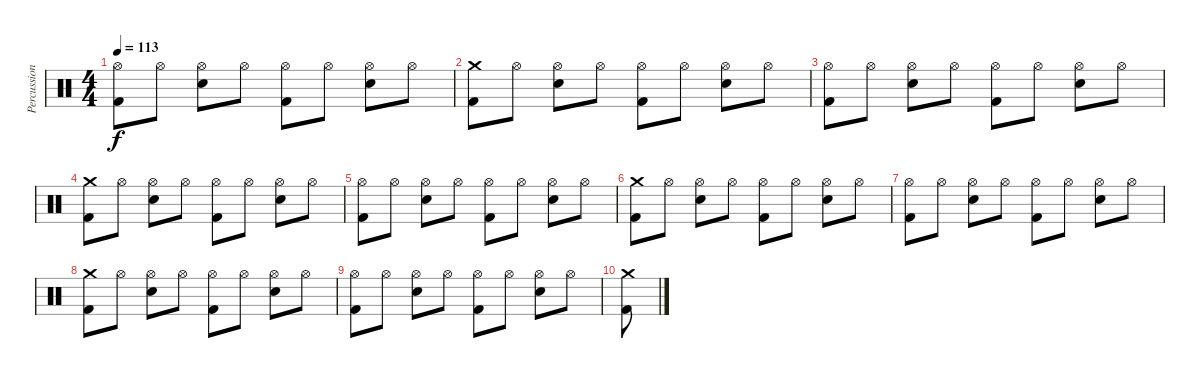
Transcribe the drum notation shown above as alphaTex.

\track ("Percussion" "Percussion") {instrument percussion}
\staff {score}
\articulation defaults
\ts (4 4)
\tempo 113
\clef neutral
\ks c
("Hi-Hat (open)" "Kick (hit) 2").8{dy f} "Hi-Hat (open)".8 ("Hi-Hat (open)" "Electric Snare (hit)").8 "Hi-Hat (open)".8 ("Hi-Hat (open)" "Kick (hit) 2").8 "Hi-Hat (open)".8 ("Hi-Hat (open)" "Electric Snare (hit)").8 "Hi-Hat (open)".8 |
("Crash medium (hit)" "Kick (hit) 2").8 "Hi-Hat (open)".8 ("Hi-Hat (open)" "Electric Snare (hit)").8 "Hi-Hat (open)".8 ("Hi-Hat (open)" "Kick (hit) 2").8 "Hi-Hat (open)".8 ("Hi-Hat (open)" "Electric Snare (hit)").8 "Hi-Hat (open)".8 |
("Hi-Hat (open)" "Kick (hit) 2").8 "Hi-Hat (open)".8 ("Hi-Hat (open)" "Electric Snare (hit)").8 "Hi-Hat (open)".8 ("Hi-Hat (open)" "Kick (hit) 2").8 "Hi-Hat (open)".8 ("Hi-Hat (open)" "Electric Snare (hit)").8 "Hi-Hat (open)".8 |
("Crash medium (hit)" "Kick (hit) 2").8 "Hi-Hat (open)".8 ("Hi-Hat (open)" "Electric Snare (hit)").8 "Hi-Hat (open)".8 ("Hi-Hat (open)" "Kick (hit) 2").8 "Hi-Hat (open)".8 ("Hi-Hat (open)" "Electric Snare (hit)").8 "Hi-Hat (open)".8 |
("Hi-Hat (open)" "Kick (hit) 2").8 "Hi-Hat (open)".8 ("Hi-Hat (open)" "Electric Snare (hit)").8 "Hi-Hat (open)".8 ("Hi-Hat (open)" "Kick (hit) 2").8 "Hi-Hat (open)".8 ("Hi-Hat (open)" "Electric Snare (hit)").8 "Hi-Hat (open)".8 |
("Crash medium (hit)" "Kick (hit) 2").8 "Hi-Hat (open)".8 ("Hi-Hat (open)" "Electric Snare (hit)").8 "Hi-Hat (open)".8 ("Hi-Hat (open)" "Kick (hit) 2").8 "Hi-Hat (open)".8 ("Hi-Hat (open)" "Electric Snare (hit)").8 "Hi-Hat (open)".8 |
("Hi-Hat (open)" "Kick (hit) 2").8 "Hi-Hat (open)".8 ("Hi-Hat (open)" "Electric Snare (hit)").8 "Hi-Hat (open)".8 ("Hi-Hat (open)" "Kick (hit) 2").8 "Hi-Hat (open)".8 ("Hi-Hat (open)" "Electric Snare (hit)").8 "Hi-Hat (open)".8 |
("Crash medium (hit)" "Kick (hit) 2").8 "Hi-Hat (open)".8 ("Hi-Hat (open)" "Electric Snare (hit)").8 "Hi-Hat (open)".8 ("Hi-Hat (open)" "Kick (hit) 2").8 "Hi-Hat (open)".8 ("Hi-Hat (open)" "Electric Snare (hit)").8 "Hi-Hat (open)".8 |
("Hi-Hat (open)" "Kick (hit) 2").8 "Hi-Hat (open)".8 ("Hi-Hat (open)" "Electric Snare (hit)").8 "Hi-Hat (open)".8 ("Hi-Hat (open)" "Kick (hit) 2").8 "Hi-Hat (open)".8 ("Hi-Hat (open)" "Electric Snare (hit)").8 "Hi-Hat (open)".8 |
("Crash medium (hit)" "Kick (hit) 2").8
